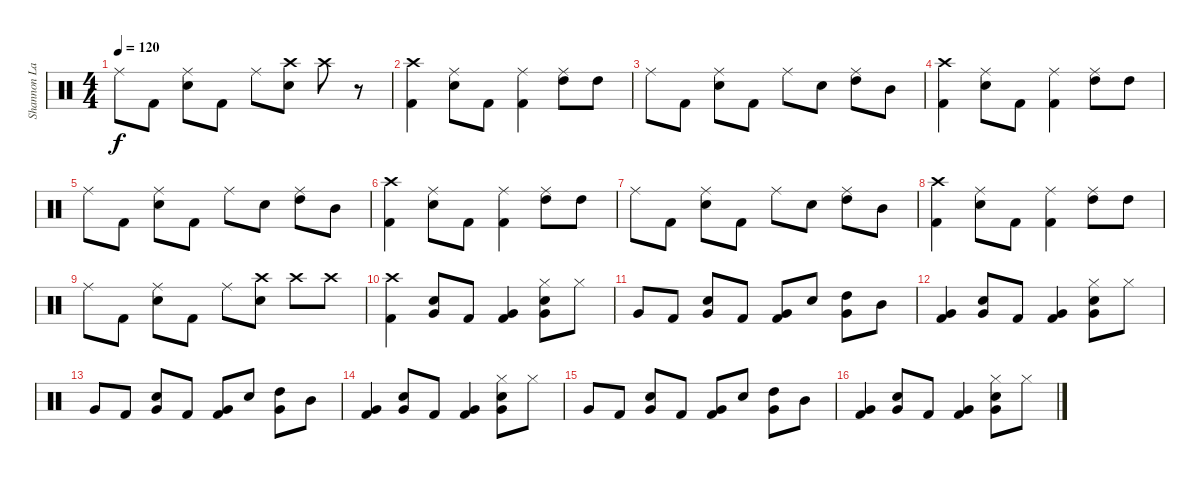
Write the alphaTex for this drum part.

\track ("Shannon Larkin [Drums]" "Shannon La") {instrument percussion}
\staff {score}
\articulation defaults
\ts (4 4)
\tempo 120
\clef neutral
\ks c "Ride (middle)".8{dy f} "Kick (hit) 2".8
("Ride (middle)" "Electric Snare (hit)").8 "Kick (hit) 2".8 "Ride (middle)".8 ("Crash high (hit)" "Electric Snare (hit)").8 "Crash high (hit)".8 r.8 |
("Crash high (hit)" "Kick (hit) 2").4 ("Ride (middle)" "Electric Snare (hit)").8 "Kick (hit) 2".8 ("Ride (middle)" "Kick (hit) 2").4 ("Ride (middle)" "High Tom (hit)").8 "High Tom (hit)".8 |
"Ride (middle)".8 "Kick (hit) 2".8 ("Ride (middle)" "Electric Snare (hit)").8 "Kick (hit) 2".8 "Ride (middle)".8 "Electric Snare (hit)".8 ("Ride (middle)" "High Tom (hit)").8 "Mid Tom (hit)".8 |
("Crash high (hit)" "Kick (hit) 2").4 ("Ride (middle)" "Electric Snare (hit)").8 "Kick (hit) 2".8 ("Ride (middle)" "Kick (hit) 2").4 ("Ride (middle)" "High Tom (hit)").8 "High Tom (hit)".8 |
"Ride (middle)".8 "Kick (hit) 2".8 ("Ride (middle)" "Electric Snare (hit)").8 "Kick (hit) 2".8 "Ride (middle)".8 "Electric Snare (hit)".8 ("Ride (middle)" "High Tom (hit)").8 "Mid Tom (hit)".8 |
("Crash high (hit)" "Kick (hit) 2").4 ("Ride (middle)" "Electric Snare (hit)").8 "Kick (hit) 2".8 ("Ride (middle)" "Kick (hit) 2").4 ("Ride (middle)" "High Tom (hit)").8 "High Tom (hit)".8 |
"Ride (middle)".8 "Kick (hit) 2".8 ("Ride (middle)" "Electric Snare (hit)").8 "Kick (hit) 2".8 "Ride (middle)".8 "Electric Snare (hit)".8 ("Ride (middle)" "High Tom (hit)").8 "Mid Tom (hit)".8 |
("Crash high (hit)" "Kick (hit) 2").4 ("Ride (middle)" "Electric Snare (hit)").8 "Kick (hit) 2".8 ("Ride (middle)" "Kick (hit) 2").4 ("Ride (middle)" "High Tom (hit)").8 "High Tom (hit)".8 |
"Ride (middle)".8 "Kick (hit) 2".8 ("Ride (middle)" "Electric Snare (hit)").8 "Kick (hit) 2".8 "Ride (middle)".8 ("Crash high (hit)" "Electric Snare (hit)").8 "Crash high (hit)".8 "Crash high (hit)".8 |
("Crash high (hit)" "Kick (hit) 2").4 ("Very Low Tom (hit)" "Electric Snare (hit)").8 "Kick (hit) 2".8 ("Very Low Tom (hit)" "Kick (hit) 2").4 ("Hi-Hat (closed)" "Very Low Tom (hit)" "Electric Snare (hit)").8 "Hi-Hat (closed)".8 |
"Very Low Tom (hit)".8 "Kick (hit) 2".8 ("Very Low Tom (hit)" "Electric Snare (hit)").8 "Kick (hit) 2".8 ("Very Low Tom (hit)" "Kick (hit) 2").8 "Electric Snare (hit)".8 ("Very Low Tom (hit)" "High Tom (hit)").8 "Mid Tom (hit)".8 |
("Very Low Tom (hit)" "Kick (hit) 2").4 ("Very Low Tom (hit)" "Electric Snare (hit)").8 "Kick (hit) 2".8 ("Very Low Tom (hit)" "Kick (hit) 2").4 ("Hi-Hat (closed)" "Very Low Tom (hit)" "Electric Snare (hit)").8 "Hi-Hat (closed)".8 |
"Very Low Tom (hit)".8 "Kick (hit) 2".8 ("Very Low Tom (hit)" "Electric Snare (hit)").8 "Kick (hit) 2".8 ("Very Low Tom (hit)" "Kick (hit) 2").8 "Electric Snare (hit)".8 ("Very Low Tom (hit)" "High Tom (hit)").8 "Mid Tom (hit)".8 |
("Very Low Tom (hit)" "Kick (hit) 2").4 ("Very Low Tom (hit)" "Electric Snare (hit)").8 "Kick (hit) 2".8 ("Very Low Tom (hit)" "Kick (hit) 2").4 ("Hi-Hat (closed)" "Very Low Tom (hit)" "Electric Snare (hit)").8 "Hi-Hat (closed)".8 |
"Very Low Tom (hit)".8 "Kick (hit) 2".8 ("Very Low Tom (hit)" "Electric Snare (hit)").8 "Kick (hit) 2".8 ("Very Low Tom (hit)" "Kick (hit) 2").8 "Electric Snare (hit)".8 ("Very Low Tom (hit)" "High Tom (hit)").8 "Mid Tom (hit)".8 |
("Very Low Tom (hit)" "Kick (hit) 2").4 ("Very Low Tom (hit)" "Electric Snare (hit)").8 "Kick (hit) 2".8 ("Very Low Tom (hit)" "Kick (hit) 2").4 ("Hi-Hat (closed)" "Very Low Tom (hit)" "Electric Snare (hit)").8 "Hi-Hat (closed)".8
